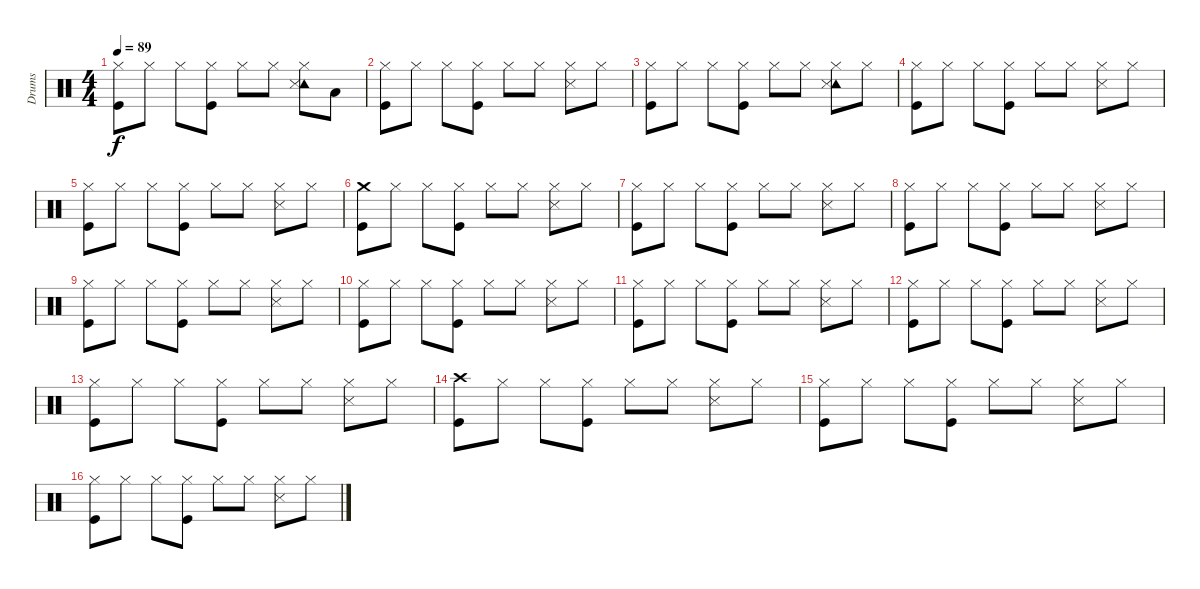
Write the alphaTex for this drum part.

\track ("Drums" "Drums") {instrument percussion}
\staff {score}
\articulation defaults
\ts (4 4)
\tempo 89
\clef neutral
\ks c
("Hi-Hat (closed)" "Kick (hit)").8{dy f} "Hi-Hat (closed)".8 "Hi-Hat (closed)".8 ("Hi-Hat (closed)" "Kick (hit)").8 "Hi-Hat (closed)".8 "Hi-Hat (closed)".8 ("Tambourine (hit)" "Hi-Hat (closed)" "Snare (side stick) 3").8 "Low Tom (hit)".8 |
("Hi-Hat (closed)" "Kick (hit)").8 "Hi-Hat (closed)".8 "Hi-Hat (closed)".8 ("Hi-Hat (closed)" "Kick (hit)").8 "Hi-Hat (closed)".8 "Hi-Hat (closed)".8 ("Hi-Hat (closed)" "Snare (side stick) 3").8 "Hi-Hat (closed)".8 |
("Hi-Hat (closed)" "Kick (hit)").8 "Hi-Hat (closed)".8 "Hi-Hat (closed)".8 ("Hi-Hat (closed)" "Kick (hit)").8 "Hi-Hat (closed)".8 "Hi-Hat (closed)".8 ("Tambourine (hit)" "Hi-Hat (closed)" "Snare (side stick) 3").8 "Hi-Hat (closed)".8 |
("Hi-Hat (closed)" "Kick (hit)").8 "Hi-Hat (closed)".8 "Hi-Hat (closed)".8 ("Hi-Hat (closed)" "Kick (hit)").8 "Hi-Hat (closed)".8 "Hi-Hat (closed)".8 ("Hi-Hat (closed)" "Snare (side stick) 3").8 "Hi-Hat (closed)".8 |
("Hi-Hat (closed)" "Kick (hit)").8 "Hi-Hat (closed)".8 "Hi-Hat (closed)".8 ("Hi-Hat (closed)" "Kick (hit)").8 "Hi-Hat (closed)".8 "Hi-Hat (closed)".8 ("Hi-Hat (closed)" "Snare (side stick) 3").8 "Hi-Hat (closed)".8 |
("Crash medium (hit)" "Kick (hit)").8 "Hi-Hat (closed)".8 "Hi-Hat (closed)".8 ("Hi-Hat (closed)" "Kick (hit)").8 "Hi-Hat (closed)".8 "Hi-Hat (closed)".8 ("Hi-Hat (closed)" "Snare (side stick) 3").8 "Hi-Hat (closed)".8 |
("Hi-Hat (closed)" "Kick (hit)").8 "Hi-Hat (closed)".8 "Hi-Hat (closed)".8 ("Hi-Hat (closed)" "Kick (hit)").8 "Hi-Hat (closed)".8 "Hi-Hat (closed)".8 ("Hi-Hat (closed)" "Snare (side stick) 3").8 "Hi-Hat (closed)".8 |
("Hi-Hat (closed)" "Kick (hit)").8 "Hi-Hat (closed)".8 "Hi-Hat (closed)".8 ("Hi-Hat (closed)" "Kick (hit)").8 "Hi-Hat (closed)".8 "Hi-Hat (closed)".8 ("Hi-Hat (closed)" "Snare (side stick) 3").8 "Hi-Hat (closed)".8 |
("Hi-Hat (closed)" "Kick (hit)").8 "Hi-Hat (closed)".8 "Hi-Hat (closed)".8 ("Hi-Hat (closed)" "Kick (hit)").8 "Hi-Hat (closed)".8 "Hi-Hat (closed)".8 ("Hi-Hat (closed)" "Snare (side stick) 3").8 "Hi-Hat (closed)".8 |
("Hi-Hat (closed)" "Kick (hit)").8 "Hi-Hat (closed)".8 "Hi-Hat (closed)".8 ("Hi-Hat (closed)" "Kick (hit)").8 "Hi-Hat (closed)".8 "Hi-Hat (closed)".8 ("Hi-Hat (closed)" "Snare (side stick) 3").8 "Hi-Hat (closed)".8 |
("Hi-Hat (closed)" "Kick (hit)").8 "Hi-Hat (closed)".8 "Hi-Hat (closed)".8 ("Hi-Hat (closed)" "Kick (hit)").8 "Hi-Hat (closed)".8 "Hi-Hat (closed)".8 ("Hi-Hat (closed)" "Snare (side stick) 3").8 "Hi-Hat (closed)".8 |
("Hi-Hat (closed)" "Kick (hit)").8 "Hi-Hat (closed)".8 "Hi-Hat (closed)".8 ("Hi-Hat (closed)" "Kick (hit)").8 "Hi-Hat (closed)".8 "Hi-Hat (closed)".8 ("Hi-Hat (closed)" "Snare (side stick) 3").8 "Hi-Hat (closed)".8 |
("Hi-Hat (closed)" "Kick (hit)").8 "Hi-Hat (closed)".8 "Hi-Hat (closed)".8 ("Hi-Hat (closed)" "Kick (hit)").8 "Hi-Hat (closed)".8 "Hi-Hat (closed)".8 ("Hi-Hat (closed)" "Snare (side stick) 3").8 "Hi-Hat (closed)".8 |
("Crash high (hit)" "Kick (hit)").8 "Hi-Hat (closed)".8 "Hi-Hat (closed)".8 ("Hi-Hat (closed)" "Kick (hit)").8 "Hi-Hat (closed)".8 "Hi-Hat (closed)".8 ("Hi-Hat (closed)" "Snare (side stick) 3").8 "Hi-Hat (closed)".8 |
("Hi-Hat (closed)" "Kick (hit)").8 "Hi-Hat (closed)".8 "Hi-Hat (closed)".8 ("Hi-Hat (closed)" "Kick (hit)").8 "Hi-Hat (closed)".8 "Hi-Hat (closed)".8 ("Hi-Hat (closed)" "Snare (side stick) 3").8 "Hi-Hat (closed)".8 |
("Hi-Hat (closed)" "Kick (hit)").8 "Hi-Hat (closed)".8 "Hi-Hat (closed)".8 ("Hi-Hat (closed)" "Kick (hit)").8 "Hi-Hat (closed)".8 "Hi-Hat (closed)".8 ("Hi-Hat (closed)" "Snare (side stick) 3").8 "Hi-Hat (closed)".8
